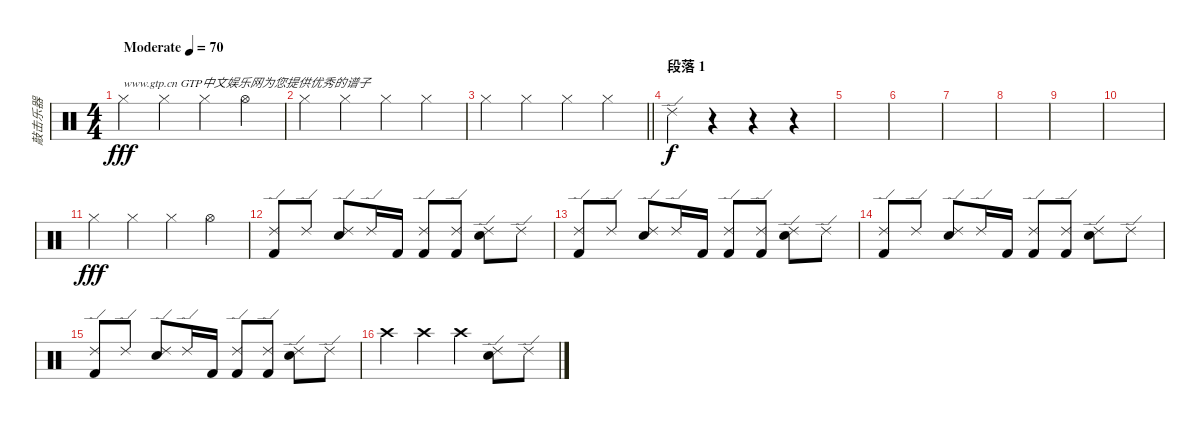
\track ("敲击乐器" "敲击乐器") {instrument percussion}
\staff {score}
\articulation defaults
\ts (4 4)
\tempo (70 "Moderate")
\clef neutral
\ks c "Hi-Hat (closed)".4{txt "www.gtp.cn GTP中文娱乐网为您提供优秀的谱子" dy fff} "Hi-Hat (closed)".4 "Hi-Hat (closed)".4 "Hi-Hat (open)".4
|
"Hi-Hat (closed)".4 "Hi-Hat (closed)".4 "Hi-Hat (closed)".4 "Hi-Hat (closed)".4 |
\barLineRight lightlight "Hi-Hat (closed)".4 "Hi-Hat (closed)".4 "Hi-Hat (closed)".4 "Hi-Hat (closed)".4
|
\section ("" "段落 1")
"Ride (edge) 2".4{dy f} r.4 r.4 r.4 |
|
|
|
|
|
|
"Hi-Hat (closed)".4{dy fff} "Hi-Hat (closed)".4 "Hi-Hat (closed)".4 "Hi-Hat (open)".4 |
("Ride (edge) 2" "Kick (hit) 2").8 "Ride (edge) 2".8 ("Ride (edge) 2" "Snare (hit) 2").8 "Ride (edge) 2".16 "Kick (hit) 2".16 ("Ride (edge) 2" "Kick (hit) 2").8 ("Ride (edge) 2" "Kick (hit) 2").8 ("Ride (edge) 2" "Snare (hit) 2").8 "Ride (edge) 2".8 |
("Ride (edge) 2" "Kick (hit) 2").8 "Ride (edge) 2".8 ("Ride (edge) 2" "Snare (hit) 2").8 "Ride (edge) 2".16 "Kick (hit) 2".16 ("Ride (edge) 2" "Kick (hit) 2").8 ("Ride (edge) 2" "Kick (hit) 2").8 ("Ride (edge) 2" "Snare (hit) 2").8 "Ride (edge) 2".8 |
("Ride (edge) 2" "Kick (hit) 2").8 "Ride (edge) 2".8 ("Ride (edge) 2" "Snare (hit) 2").8 "Ride (edge) 2".16 "Kick (hit) 2".16 ("Ride (edge) 2" "Kick (hit) 2").8 ("Ride (edge) 2" "Kick (hit) 2").8 ("Ride (edge) 2" "Snare (hit) 2").8 "Ride (edge) 2".8 |
("Ride (edge) 2" "Kick (hit) 2").8 "Ride (edge) 2".8 ("Ride (edge) 2" "Snare (hit) 2").8 "Ride (edge) 2".16 "Kick (hit) 2".16 ("Ride (edge) 2" "Kick (hit) 2").8 ("Ride (edge) 2" "Kick (hit) 2").8 ("Ride (edge) 2" "Snare (hit) 2").8 "Ride (edge) 2".8 |
"Crash high (hit)".4 "Crash high (hit)".4 "Crash high (hit)".4 ("Ride (edge) 2" "Snare (hit) 2").8 "Ride (edge) 2".8
